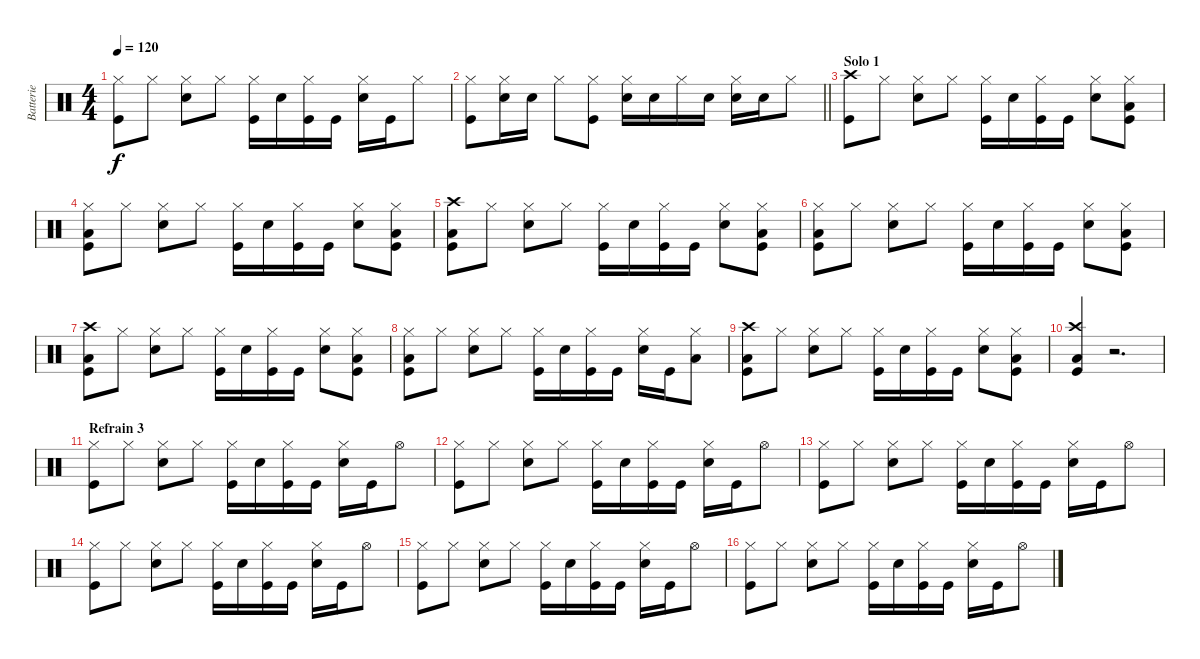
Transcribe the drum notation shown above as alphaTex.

\track ("Batterie" "Batterie") {instrument percussion}
\staff {score}
\articulation defaults
\ts (4 4)
\tempo 120
\clef neutral
\ks c
("Hi-Hat (closed)" "Kick (hit)").8{dy f} "Hi-Hat (closed)".8 ("Hi-Hat (closed)" "Snare (hit) 2").8 "Hi-Hat (closed)".8 ("Hi-Hat (closed)" "Kick (hit)").16 "Snare (hit) 2".16 ("Hi-Hat (closed)" "Kick (hit)").16 "Kick (hit)".16 ("Hi-Hat (closed)" "Snare (hit) 2").16 "Kick (hit)".16 "Hi-Hat (closed)".8 |
\barLineRight lightlight
("Hi-Hat (closed)" "Kick (hit)").8 ("Hi-Hat (closed)" "Snare (hit) 2").16 "Snare (hit) 2".16 "Hi-Hat (closed)".8 ("Hi-Hat (closed)" "Kick (hit)").8 ("Hi-Hat (closed)" "Snare (hit) 2").16 "Snare (hit) 2".16 "Hi-Hat (closed)".16 "Snare (hit) 2".16 ("Hi-Hat (closed)" "Snare (hit) 2").16 "Snare (hit) 2".16 "Hi-Hat (closed)".8 |
\section ("" "Solo 1")
("Crash high (hit)" "Kick (hit)").8 "Hi-Hat (closed)".8 ("Hi-Hat (closed)" "Snare (hit) 2").8 "Hi-Hat (closed)".8 ("Hi-Hat (closed)" "Kick (hit)").16 "Snare (hit) 2".16 ("Hi-Hat (closed)" "Kick (hit)").16 "Kick (hit)".16 ("Hi-Hat (closed)" "Snare (hit) 2").8 ("Hi-Hat (closed)" "Low Floor Tom (hit)" "Kick (hit)").8 |
("Hi-Hat (closed)" "Low Floor Tom (hit)" "Kick (hit)").8 "Hi-Hat (closed)".8 ("Hi-Hat (closed)" "Snare (hit) 2").8 "Hi-Hat (closed)".8 ("Hi-Hat (closed)" "Kick (hit)").16 "Snare (hit) 2".16 ("Hi-Hat (closed)" "Kick (hit)").16 "Kick (hit)".16 ("Hi-Hat (closed)" "Snare (hit) 2").8 ("Hi-Hat (closed)" "Low Floor Tom (hit)" "Kick (hit)").8 |
("Crash high (hit)" "Low Floor Tom (hit)" "Kick (hit)").8 "Hi-Hat (closed)".8 ("Hi-Hat (closed)" "Snare (hit) 2").8 "Hi-Hat (closed)".8 ("Hi-Hat (closed)" "Kick (hit)").16 "Snare (hit) 2".16 ("Hi-Hat (closed)" "Kick (hit)").16 "Kick (hit)".16 ("Hi-Hat (closed)" "Snare (hit) 2").8 ("Hi-Hat (closed)" "Low Floor Tom (hit)" "Kick (hit)").8 |
("Hi-Hat (closed)" "Low Floor Tom (hit)" "Kick (hit)").8 "Hi-Hat (closed)".8 ("Hi-Hat (closed)" "Snare (hit) 2").8 "Hi-Hat (closed)".8 ("Hi-Hat (closed)" "Kick (hit)").16 "Snare (hit) 2".16 ("Hi-Hat (closed)" "Kick (hit)").16 "Kick (hit)".16 ("Hi-Hat (closed)" "Snare (hit) 2").8 ("Hi-Hat (closed)" "Low Floor Tom (hit)" "Kick (hit)").8 |
("Crash high (hit)" "Low Floor Tom (hit)" "Kick (hit)").8 "Hi-Hat (closed)".8 ("Hi-Hat (closed)" "Snare (hit) 2").8 "Hi-Hat (closed)".8 ("Hi-Hat (closed)" "Kick (hit)").16 "Snare (hit) 2".16 ("Hi-Hat (closed)" "Kick (hit)").16 "Kick (hit)".16 ("Hi-Hat (closed)" "Snare (hit) 2").8 ("Hi-Hat (closed)" "Low Floor Tom (hit)" "Kick (hit)").8 |
("Hi-Hat (closed)" "Low Floor Tom (hit)" "Kick (hit)").8 "Hi-Hat (closed)".8 ("Hi-Hat (closed)" "Snare (hit) 2").8 "Hi-Hat (closed)".8 ("Hi-Hat (closed)" "Kick (hit)").16 "Snare (hit) 2".16 ("Hi-Hat (closed)" "Kick (hit)").16 "Kick (hit)".16 ("Hi-Hat (closed)" "Snare (hit) 2").16 "Kick (hit)".16 ("Hi-Hat (closed)" "Low Floor Tom (hit)").8 |
("Crash high (hit)" "Low Floor Tom (hit)" "Kick (hit)").8 "Hi-Hat (closed)".8 ("Hi-Hat (closed)" "Snare (hit) 2").8 "Hi-Hat (closed)".8 ("Hi-Hat (closed)" "Kick (hit)").16 "Snare (hit) 2".16 ("Hi-Hat (closed)" "Kick (hit)").16 "Kick (hit)".16 ("Hi-Hat (closed)" "Snare (hit) 2").8 ("Hi-Hat (closed)" "Low Floor Tom (hit)" "Kick (hit)").8 |
("Crash high (hit)" "Low Floor Tom (hit)" "Kick (hit)").4 r.2{d} |
\section ("" "Refrain 3")
("Hi-Hat (closed)" "Kick (hit)").8 "Hi-Hat (closed)".8 ("Hi-Hat (closed)" "Snare (hit) 2").8 "Hi-Hat (closed)".8 ("Hi-Hat (closed)" "Kick (hit)").16 "Snare (hit) 2".16 ("Hi-Hat (closed)" "Kick (hit)").16 "Kick (hit)".16 ("Hi-Hat (closed)" "Snare (hit) 2").16 "Kick (hit)".16 "Hi-Hat (open)".8 |
("Hi-Hat (closed)" "Kick (hit)").8 "Hi-Hat (closed)".8 ("Hi-Hat (closed)" "Snare (hit) 2").8 "Hi-Hat (closed)".8 ("Hi-Hat (closed)" "Kick (hit)").16 "Snare (hit) 2".16 ("Hi-Hat (closed)" "Kick (hit)").16 "Kick (hit)".16 ("Hi-Hat (closed)" "Snare (hit) 2").16 "Kick (hit)".16 "Hi-Hat (open)".8 |
("Hi-Hat (closed)" "Kick (hit)").8 "Hi-Hat (closed)".8 ("Hi-Hat (closed)" "Snare (hit) 2").8 "Hi-Hat (closed)".8 ("Hi-Hat (closed)" "Kick (hit)").16 "Snare (hit) 2".16 ("Hi-Hat (closed)" "Kick (hit)").16 "Kick (hit)".16 ("Hi-Hat (closed)" "Snare (hit) 2").16 "Kick (hit)".16 "Hi-Hat (open)".8 |
("Hi-Hat (closed)" "Kick (hit)").8 "Hi-Hat (closed)".8 ("Hi-Hat (closed)" "Snare (hit) 2").8 "Hi-Hat (closed)".8 ("Hi-Hat (closed)" "Kick (hit)").16 "Snare (hit) 2".16 ("Hi-Hat (closed)" "Kick (hit)").16 "Kick (hit)".16 ("Hi-Hat (closed)" "Snare (hit) 2").16 "Kick (hit)".16 "Hi-Hat (open)".8 |
("Hi-Hat (closed)" "Kick (hit)").8 "Hi-Hat (closed)".8 ("Hi-Hat (closed)" "Snare (hit) 2").8 "Hi-Hat (closed)".8 ("Hi-Hat (closed)" "Kick (hit)").16 "Snare (hit) 2".16 ("Hi-Hat (closed)" "Kick (hit)").16 "Kick (hit)".16 ("Hi-Hat (closed)" "Snare (hit) 2").16 "Kick (hit)".16 "Hi-Hat (open)".8 |
("Hi-Hat (closed)" "Kick (hit)").8 "Hi-Hat (closed)".8 ("Hi-Hat (closed)" "Snare (hit) 2").8 "Hi-Hat (closed)".8 ("Hi-Hat (closed)" "Kick (hit)").16 "Snare (hit) 2".16 ("Hi-Hat (closed)" "Kick (hit)").16 "Kick (hit)".16 ("Hi-Hat (closed)" "Snare (hit) 2").16 "Kick (hit)".16 "Hi-Hat (open)".8
